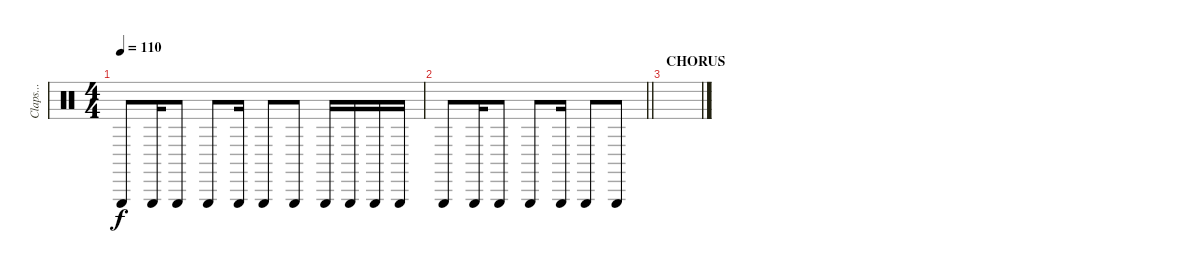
\track ("Claps..." "Claps...") {instrument percussion}
\staff {score}
\articulation defaults
\ts (4 4)
\tempo 110
\clef neutral
\ks c "Triangle (hit)".8{dy f} "Triangle (hit)".16 "Triangle (hit)".8 "Triangle (hit)".8 "Triangle (hit)".16 "Triangle (hit)".8 "Triangle (hit)".8 "Triangle (hit)".16 "Triangle (hit)".16 "Triangle (hit)".16 "Triangle (hit)".16
|
\barLineRight lightlight "Triangle (hit)".8 "Triangle (hit)".16 "Triangle (hit)".8 "Triangle (hit)".8 "Triangle (hit)".16 "Triangle (hit)".8 "Triangle (hit)".8
|
\section ("" "CHORUS")
